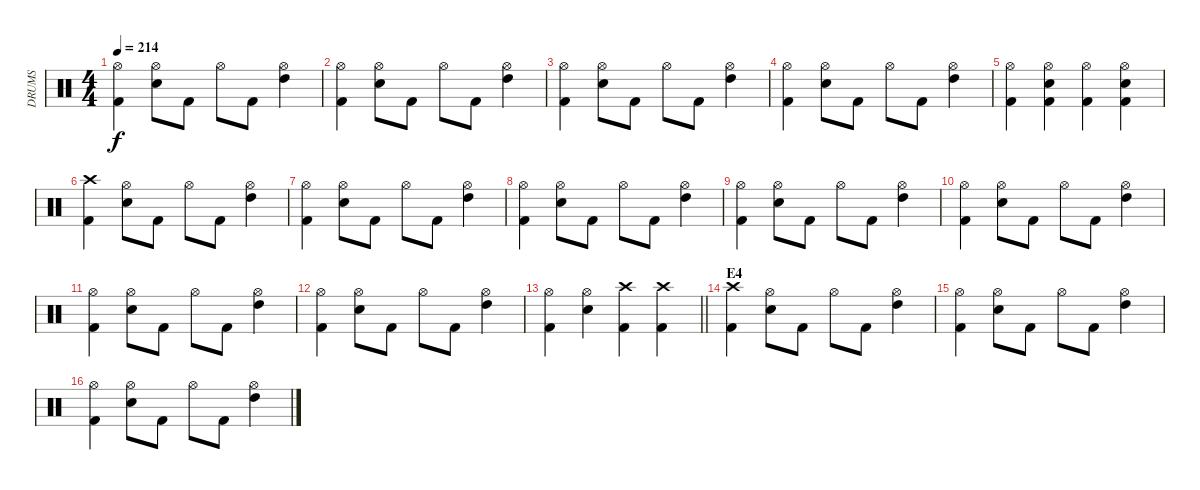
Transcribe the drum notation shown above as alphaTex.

\track ("DRUMS" "DRUMS") {instrument percussion}
\staff {score}
\articulation defaults
\ts (4 4)
\tempo 214
\clef neutral
\ks c
("Hi-Hat (open)" "Kick (hit) 2").4{dy f} ("Hi-Hat (open)" "Snare (hit) 2").8 "Kick (hit) 2".8 "Hi-Hat (open)".8 "Kick (hit) 2".8 ("Hi-Hat (open)" "High Tom (hit)").4 |
("Hi-Hat (open)" "Kick (hit) 2").4 ("Hi-Hat (open)" "Snare (hit) 2").8 "Kick (hit) 2".8 "Hi-Hat (open)".8 "Kick (hit) 2".8 ("Hi-Hat (open)" "High Tom (hit)").4 |
("Hi-Hat (open)" "Kick (hit) 2").4 ("Hi-Hat (open)" "Snare (hit) 2").8 "Kick (hit) 2".8 "Hi-Hat (open)".8 "Kick (hit) 2".8 ("Hi-Hat (open)" "High Tom (hit)").4 |
("Hi-Hat (open)" "Kick (hit) 2").4 ("Hi-Hat (open)" "Snare (hit) 2").8 "Kick (hit) 2".8 "Hi-Hat (open)".8 "Kick (hit) 2".8 ("Hi-Hat (open)" "High Tom (hit)").4 |
("Hi-Hat (open)" "Kick (hit) 2").4 ("Hi-Hat (open)" "Snare (hit) 2" "Kick (hit) 2").4 ("Hi-Hat (open)" "Kick (hit) 2").4 ("Hi-Hat (open)" "Snare (hit) 2" "Kick (hit) 2").4 |
("Crash high (hit)" "Kick (hit) 2").4 ("Hi-Hat (open)" "Snare (hit) 2").8 "Kick (hit) 2".8 "Hi-Hat (open)".8 "Kick (hit) 2".8 ("Hi-Hat (open)" "High Tom (hit)").4 |
("Hi-Hat (open)" "Kick (hit) 2").4 ("Hi-Hat (open)" "Snare (hit) 2").8 "Kick (hit) 2".8 "Hi-Hat (open)".8 "Kick (hit) 2".8 ("Hi-Hat (open)" "High Tom (hit)").4 |
("Hi-Hat (open)" "Kick (hit) 2").4 ("Hi-Hat (open)" "Snare (hit) 2").8 "Kick (hit) 2".8 "Hi-Hat (open)".8 "Kick (hit) 2".8 ("Hi-Hat (open)" "High Tom (hit)").4 |
("Hi-Hat (open)" "Kick (hit) 2").4 ("Hi-Hat (open)" "Snare (hit) 2").8 "Kick (hit) 2".8 "Hi-Hat (open)".8 "Kick (hit) 2".8 ("Hi-Hat (open)" "High Tom (hit)").4 |
("Hi-Hat (open)" "Kick (hit) 2").4 ("Hi-Hat (open)" "Snare (hit) 2").8 "Kick (hit) 2".8 "Hi-Hat (open)".8 "Kick (hit) 2".8 ("Hi-Hat (open)" "High Tom (hit)").4 |
("Hi-Hat (open)" "Kick (hit) 2").4 ("Hi-Hat (open)" "Snare (hit) 2").8 "Kick (hit) 2".8 "Hi-Hat (open)".8 "Kick (hit) 2".8 ("Hi-Hat (open)" "High Tom (hit)").4 |
("Hi-Hat (open)" "Kick (hit) 2").4 ("Hi-Hat (open)" "Snare (hit) 2").8 "Kick (hit) 2".8 "Hi-Hat (open)".8 "Kick (hit) 2".8 ("Hi-Hat (open)" "High Tom (hit)").4 |
\barLineRight lightlight
("Hi-Hat (open)" "Kick (hit) 2").4 ("Hi-Hat (open)" "Snare (hit) 2").4 ("Crash high (hit)" "Kick (hit) 2").4 ("Crash high (hit)" "Kick (hit) 2").4 |
\section ("" "E4")
("Crash high (hit)" "Kick (hit) 2").4 ("Hi-Hat (open)" "Snare (hit) 2").8 "Kick (hit) 2".8 "Hi-Hat (open)".8 "Kick (hit) 2".8 ("Hi-Hat (open)" "High Tom (hit)").4 |
("Hi-Hat (open)" "Kick (hit) 2").4 ("Hi-Hat (open)" "Snare (hit) 2").8 "Kick (hit) 2".8 "Hi-Hat (open)".8 "Kick (hit) 2".8 ("Hi-Hat (open)" "High Tom (hit)").4 |
("Hi-Hat (open)" "Kick (hit) 2").4 ("Hi-Hat (open)" "Snare (hit) 2").8 "Kick (hit) 2".8 "Hi-Hat (open)".8 "Kick (hit) 2".8 ("Hi-Hat (open)" "High Tom (hit)").4
